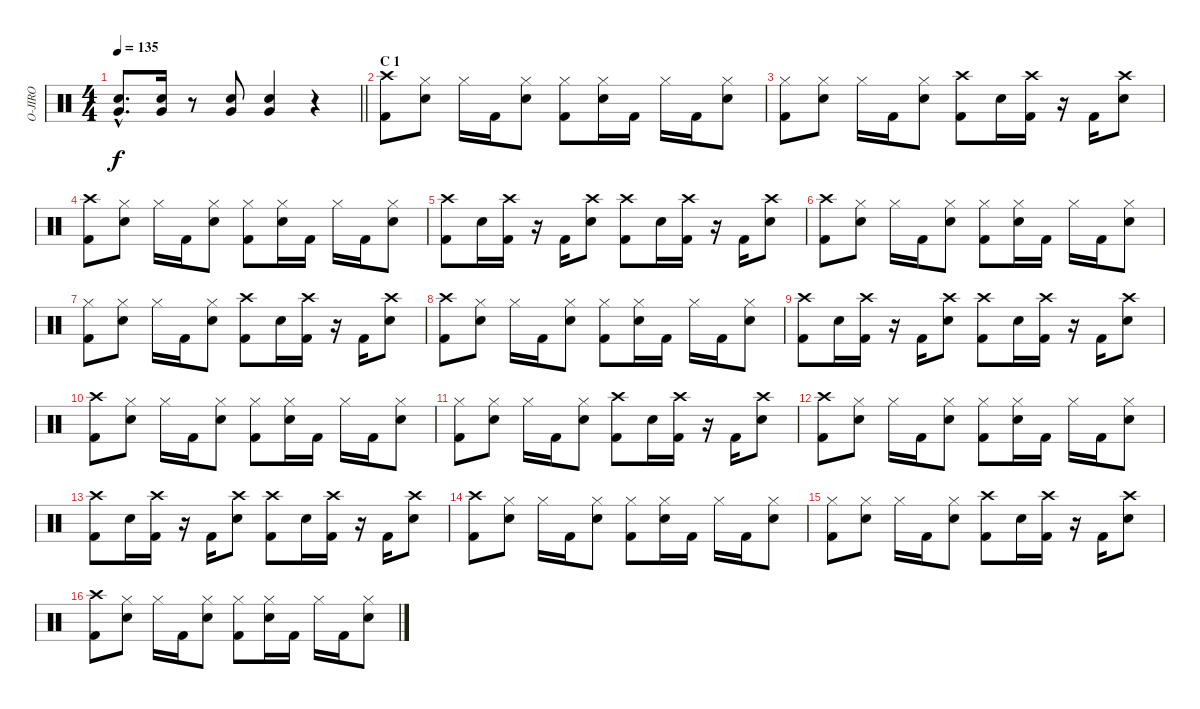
\track ("O-JIRO" "O-JIRO") {instrument percussion}
\staff {score}
\articulation defaults
\ts (4 4)
\tempo 135
\clef neutral
\barLineRight lightlight
\ks c
("Snare (hit) 2"{hac} "Very Low Tom (hit)"{hac}).8{d dy f} ("Snare (hit) 2" "Very Low Tom (hit)").16 r.8 ("Snare (hit) 2" "Very Low Tom (hit)").8 ("Snare (hit) 2" "Very Low Tom (hit)").4 r.4 |
\section ("" "C 1")
("Crash high (hit)" "Kick (hit) 2").8 ("Hi-Hat (closed)" "Snare (hit) 2").8 "Hi-Hat (closed)".16 "Kick (hit) 2".16 ("Hi-Hat (closed)" "Snare (hit) 2").8 ("Hi-Hat (closed)" "Kick (hit) 2").8 ("Hi-Hat (closed)" "Snare (hit) 2").16 "Kick (hit) 2".16 "Hi-Hat (closed)".16 "Kick (hit) 2".16 ("Hi-Hat (closed)" "Snare (hit) 2").8 |
("Hi-Hat (closed)" "Kick (hit) 2").8 ("Hi-Hat (closed)" "Snare (hit) 2").8 "Hi-Hat (closed)".16 "Kick (hit) 2".16 ("Hi-Hat (closed)" "Snare (hit) 2").8 ("Crash high (hit)" "Kick (hit) 2").8 "Snare (hit) 2".16 ("Crash high (hit)" "Kick (hit) 2").16 r.16 "Kick (hit) 2".16 ("Crash high (hit)" "Snare (hit) 2").8 |
("Crash high (hit)" "Kick (hit) 2").8 ("Hi-Hat (closed)" "Snare (hit) 2").8 "Hi-Hat (closed)".16 "Kick (hit) 2".16 ("Hi-Hat (closed)" "Snare (hit) 2").8 ("Hi-Hat (closed)" "Kick (hit) 2").8 ("Hi-Hat (closed)" "Snare (hit) 2").16 "Kick (hit) 2".16 "Hi-Hat (closed)".16 "Kick (hit) 2".16 ("Hi-Hat (closed)" "Snare (hit) 2").8 |
("Crash high (hit)" "Kick (hit) 2").8 "Snare (hit) 2".16 ("Crash high (hit)" "Kick (hit) 2").16 r.16 "Kick (hit) 2".16 ("Crash high (hit)" "Snare (hit) 2").8 ("Crash high (hit)" "Kick (hit) 2").8 "Snare (hit) 2".16 ("Crash high (hit)" "Kick (hit) 2").16 r.16 "Kick (hit) 2".16 ("Crash high (hit)" "Snare (hit) 2").8 |
("Crash high (hit)" "Kick (hit) 2").8 ("Hi-Hat (closed)" "Snare (hit) 2").8 "Hi-Hat (closed)".16 "Kick (hit) 2".16 ("Hi-Hat (closed)" "Snare (hit) 2").8 ("Hi-Hat (closed)" "Kick (hit) 2").8 ("Hi-Hat (closed)" "Snare (hit) 2").16 "Kick (hit) 2".16 "Hi-Hat (closed)".16 "Kick (hit) 2".16 ("Hi-Hat (closed)" "Snare (hit) 2").8 |
("Hi-Hat (closed)" "Kick (hit) 2").8 ("Hi-Hat (closed)" "Snare (hit) 2").8 "Hi-Hat (closed)".16 "Kick (hit) 2".16 ("Hi-Hat (closed)" "Snare (hit) 2").8 ("Crash high (hit)" "Kick (hit) 2").8 "Snare (hit) 2".16 ("Crash high (hit)" "Kick (hit) 2").16 r.16 "Kick (hit) 2".16 ("Crash high (hit)" "Snare (hit) 2").8 |
("Crash high (hit)" "Kick (hit) 2").8 ("Hi-Hat (closed)" "Snare (hit) 2").8 "Hi-Hat (closed)".16 "Kick (hit) 2".16 ("Hi-Hat (closed)" "Snare (hit) 2").8 ("Hi-Hat (closed)" "Kick (hit) 2").8 ("Hi-Hat (closed)" "Snare (hit) 2").16 "Kick (hit) 2".16 "Hi-Hat (closed)".16 "Kick (hit) 2".16 ("Hi-Hat (closed)" "Snare (hit) 2").8 |
("Crash high (hit)" "Kick (hit) 2").8 "Snare (hit) 2".16 ("Crash high (hit)" "Kick (hit) 2").16 r.16 "Kick (hit) 2".16 ("Crash high (hit)" "Snare (hit) 2").8 ("Crash high (hit)" "Kick (hit) 2").8 "Snare (hit) 2".16 ("Crash high (hit)" "Kick (hit) 2").16 r.16 "Kick (hit) 2".16 ("Crash high (hit)" "Snare (hit) 2").8 |
("Crash high (hit)" "Kick (hit) 2").8 ("Hi-Hat (closed)" "Snare (hit) 2").8 "Hi-Hat (closed)".16 "Kick (hit) 2".16 ("Hi-Hat (closed)" "Snare (hit) 2").8 ("Hi-Hat (closed)" "Kick (hit) 2").8 ("Hi-Hat (closed)" "Snare (hit) 2").16 "Kick (hit) 2".16 "Hi-Hat (closed)".16 "Kick (hit) 2".16 ("Hi-Hat (closed)" "Snare (hit) 2").8 |
("Hi-Hat (closed)" "Kick (hit) 2").8 ("Hi-Hat (closed)" "Snare (hit) 2").8 "Hi-Hat (closed)".16 "Kick (hit) 2".16 ("Hi-Hat (closed)" "Snare (hit) 2").8 ("Crash high (hit)" "Kick (hit) 2").8 "Snare (hit) 2".16 ("Crash high (hit)" "Kick (hit) 2").16 r.16 "Kick (hit) 2".16 ("Crash high (hit)" "Snare (hit) 2").8 |
("Crash high (hit)" "Kick (hit) 2").8 ("Hi-Hat (closed)" "Snare (hit) 2").8 "Hi-Hat (closed)".16 "Kick (hit) 2".16 ("Hi-Hat (closed)" "Snare (hit) 2").8 ("Hi-Hat (closed)" "Kick (hit) 2").8 ("Hi-Hat (closed)" "Snare (hit) 2").16 "Kick (hit) 2".16 "Hi-Hat (closed)".16 "Kick (hit) 2".16 ("Hi-Hat (closed)" "Snare (hit) 2").8 |
("Crash high (hit)" "Kick (hit) 2").8 "Snare (hit) 2".16 ("Crash high (hit)" "Kick (hit) 2").16 r.16 "Kick (hit) 2".16 ("Crash high (hit)" "Snare (hit) 2").8 ("Crash high (hit)" "Kick (hit) 2").8 "Snare (hit) 2".16 ("Crash high (hit)" "Kick (hit) 2").16 r.16 "Kick (hit) 2".16 ("Crash high (hit)" "Snare (hit) 2").8 |
("Crash high (hit)" "Kick (hit) 2").8 ("Hi-Hat (closed)" "Snare (hit) 2").8 "Hi-Hat (closed)".16 "Kick (hit) 2".16 ("Hi-Hat (closed)" "Snare (hit) 2").8 ("Hi-Hat (closed)" "Kick (hit) 2").8 ("Hi-Hat (closed)" "Snare (hit) 2").16 "Kick (hit) 2".16 "Hi-Hat (closed)".16 "Kick (hit) 2".16 ("Hi-Hat (closed)" "Snare (hit) 2").8 |
("Hi-Hat (closed)" "Kick (hit) 2").8 ("Hi-Hat (closed)" "Snare (hit) 2").8 "Hi-Hat (closed)".16 "Kick (hit) 2".16 ("Hi-Hat (closed)" "Snare (hit) 2").8 ("Crash high (hit)" "Kick (hit) 2").8 "Snare (hit) 2".16 ("Crash high (hit)" "Kick (hit) 2").16 r.16 "Kick (hit) 2".16 ("Crash high (hit)" "Snare (hit) 2").8 |
("Crash high (hit)" "Kick (hit) 2").8 ("Hi-Hat (closed)" "Snare (hit) 2").8 "Hi-Hat (closed)".16 "Kick (hit) 2".16 ("Hi-Hat (closed)" "Snare (hit) 2").8 ("Hi-Hat (closed)" "Kick (hit) 2").8 ("Hi-Hat (closed)" "Snare (hit) 2").16 "Kick (hit) 2".16 "Hi-Hat (closed)".16 "Kick (hit) 2".16 ("Hi-Hat (closed)" "Snare (hit) 2").8
